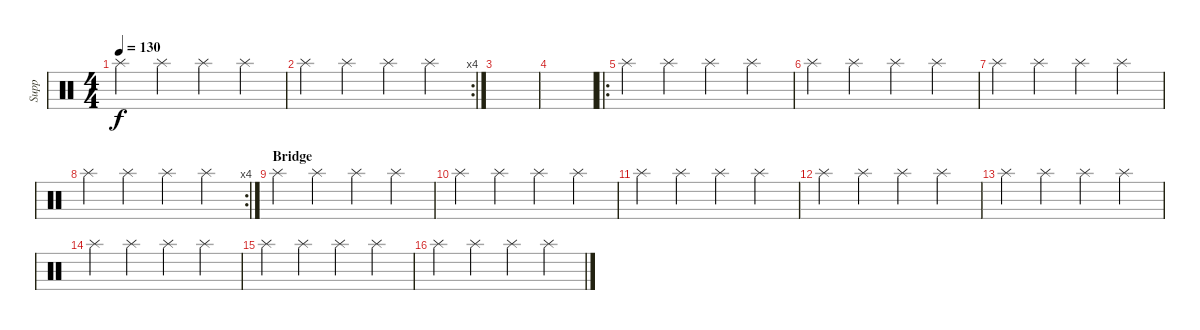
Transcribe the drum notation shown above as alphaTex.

\track ("Supp" "Supp") {instrument percussion}
\staff {score}
\articulation defaults
\ts (4 4)
\tempo 130
\clef neutral
\ks c "Splash (hit)".4{dy f} "Splash (hit)".4 "Splash (hit)".4 "Splash (hit)".4
|
\rc 4 "Splash (hit)".4 "Splash (hit)".4 "Splash (hit)".4 "Splash (hit)".4
|
|
|
\ro "Splash (hit)".4 "Splash (hit)".4 "Splash (hit)".4 "Splash (hit)".4
|
"Splash (hit)".4 "Splash (hit)".4 "Splash (hit)".4 "Splash (hit)".4 |
"Splash (hit)".4 "Splash (hit)".4 "Splash (hit)".4 "Splash (hit)".4 |
\rc 4 "Splash (hit)".4 "Splash (hit)".4 "Splash (hit)".4 "Splash (hit)".4
|
\section ("" "Bridge")
"Splash (hit)".4 "Splash (hit)".4 "Splash (hit)".4 "Splash (hit)".4 |
"Splash (hit)".4 "Splash (hit)".4 "Splash (hit)".4 "Splash (hit)".4 |
"Splash (hit)".4 "Splash (hit)".4 "Splash (hit)".4 "Splash (hit)".4 |
"Splash (hit)".4 "Splash (hit)".4 "Splash (hit)".4 "Splash (hit)".4 |
"Splash (hit)".4 "Splash (hit)".4 "Splash (hit)".4 "Splash (hit)".4 |
"Splash (hit)".4 "Splash (hit)".4 "Splash (hit)".4 "Splash (hit)".4 |
"Splash (hit)".4 "Splash (hit)".4 "Splash (hit)".4 "Splash (hit)".4 |
"Splash (hit)".4 "Splash (hit)".4 "Splash (hit)".4 "Splash (hit)".4
